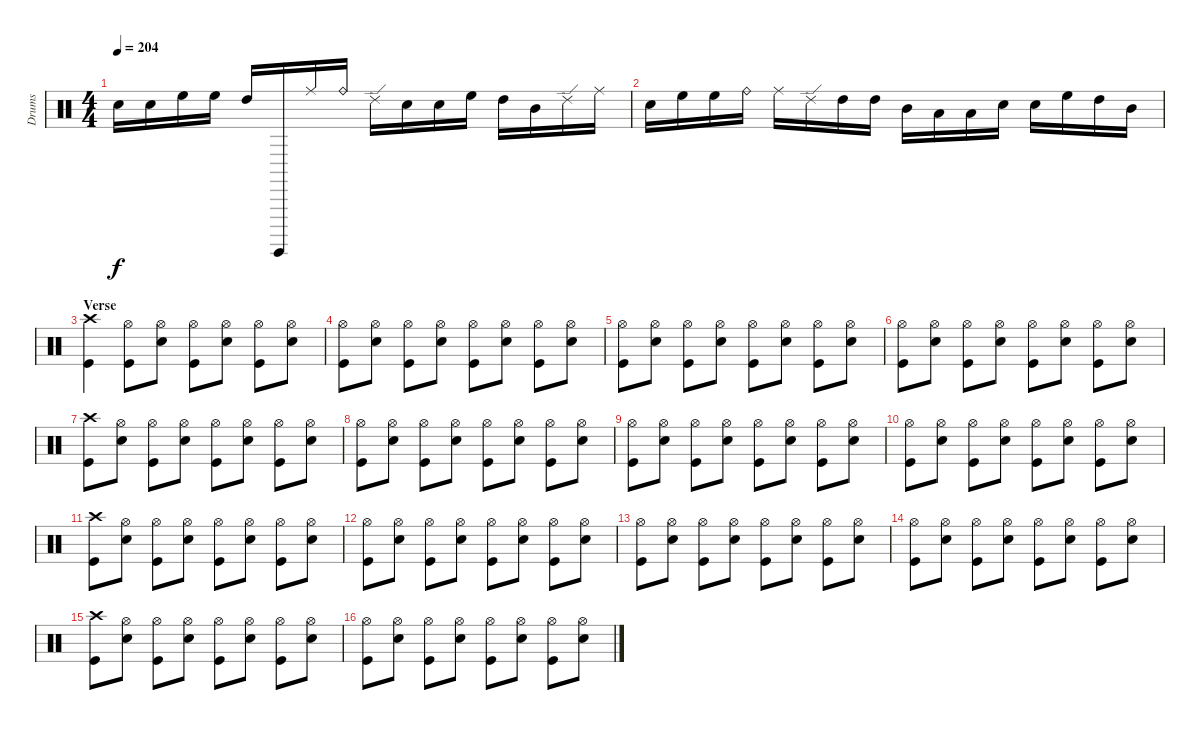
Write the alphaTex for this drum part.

\track ("Drums" "Drums") {instrument percussion}
\staff {score}
\articulation defaults
\ts (4 4)
\tempo 204
\clef neutral
\ks c "Electric Snare (hit)".16{dy f} "Electric Snare (hit)".16 "High Floor Tom (hit)".16 "High Floor Tom (hit)".16 "High Tom (hit)".16 "Surdo (hit)".16 "Ride (middle)".16 "Ride (bell)".16 "Ride (edge) 2".16 "Electric Snare (hit)".16 "Electric Snare (hit)".16 "High Floor Tom (hit)".16 "High Tom (hit)".16 "Mid Tom (hit)".16 "Ride (edge) 2".16 "Ride (middle)".16
|
"Electric Snare (hit)".16 "High Floor Tom (hit)".16 "High Floor Tom (hit)".16 "Ride (bell)".16 "Ride (middle)".16 "Ride (edge) 2".16 "High Tom (hit)".16 "High Tom (hit)".16 "Mid Tom (hit)".16 "Low Tom (hit)".16 "Low Tom (hit)".16 "Electric Snare (hit)".16 "Electric Snare (hit)".16 "High Floor Tom (hit)".16 "High Tom (hit)".16 "Mid Tom (hit)".16 |
\section ("" "Verse")
("Crash high (hit)" "Kick (hit)").4 ("Hi-Hat (open)" "Kick (hit)").8 ("Hi-Hat (open)" "Electric Snare (hit)").8 ("Hi-Hat (open)" "Kick (hit)").8 ("Hi-Hat (open)" "Electric Snare (hit)").8 ("Hi-Hat (open)" "Kick (hit)").8 ("Hi-Hat (open)" "Electric Snare (hit)").8 |
("Hi-Hat (open)" "Kick (hit)").8 ("Hi-Hat (open)" "Electric Snare (hit)").8 ("Hi-Hat (open)" "Kick (hit)").8 ("Hi-Hat (open)" "Electric Snare (hit)").8 ("Hi-Hat (open)" "Kick (hit)").8 ("Hi-Hat (open)" "Electric Snare (hit)").8 ("Hi-Hat (open)" "Kick (hit)").8 ("Hi-Hat (open)" "Electric Snare (hit)").8 |
("Hi-Hat (open)" "Kick (hit)").8 ("Hi-Hat (open)" "Electric Snare (hit)").8 ("Hi-Hat (open)" "Kick (hit)").8 ("Hi-Hat (open)" "Electric Snare (hit)").8 ("Hi-Hat (open)" "Kick (hit)").8 ("Hi-Hat (open)" "Electric Snare (hit)").8 ("Hi-Hat (open)" "Kick (hit)").8 ("Hi-Hat (open)" "Electric Snare (hit)").8 |
("Hi-Hat (open)" "Kick (hit)").8 ("Hi-Hat (open)" "Electric Snare (hit)").8 ("Hi-Hat (open)" "Kick (hit)").8 ("Hi-Hat (open)" "Electric Snare (hit)").8 ("Hi-Hat (open)" "Kick (hit)").8 ("Hi-Hat (open)" "Electric Snare (hit)").8 ("Hi-Hat (open)" "Kick (hit)").8 ("Hi-Hat (open)" "Electric Snare (hit)").8 |
("Crash high (hit)" "Kick (hit)").8 ("Hi-Hat (open)" "Electric Snare (hit)").8 ("Hi-Hat (open)" "Kick (hit)").8 ("Hi-Hat (open)" "Electric Snare (hit)").8 ("Hi-Hat (open)" "Kick (hit)").8 ("Hi-Hat (open)" "Electric Snare (hit)").8 ("Hi-Hat (open)" "Kick (hit)").8 ("Hi-Hat (open)" "Electric Snare (hit)").8 |
("Hi-Hat (open)" "Kick (hit)").8 ("Hi-Hat (open)" "Electric Snare (hit)").8 ("Hi-Hat (open)" "Kick (hit)").8 ("Hi-Hat (open)" "Electric Snare (hit)").8 ("Hi-Hat (open)" "Kick (hit)").8 ("Hi-Hat (open)" "Electric Snare (hit)").8 ("Hi-Hat (open)" "Kick (hit)").8 ("Hi-Hat (open)" "Electric Snare (hit)").8 |
("Hi-Hat (open)" "Kick (hit)").8 ("Hi-Hat (open)" "Electric Snare (hit)").8 ("Hi-Hat (open)" "Kick (hit)").8 ("Hi-Hat (open)" "Electric Snare (hit)").8 ("Hi-Hat (open)" "Kick (hit)").8 ("Hi-Hat (open)" "Electric Snare (hit)").8 ("Hi-Hat (open)" "Kick (hit)").8 ("Hi-Hat (open)" "Electric Snare (hit)").8 |
("Hi-Hat (open)" "Kick (hit)").8 ("Hi-Hat (open)" "Electric Snare (hit)").8 ("Hi-Hat (open)" "Kick (hit)").8 ("Hi-Hat (open)" "Electric Snare (hit)").8 ("Hi-Hat (open)" "Kick (hit)").8 ("Hi-Hat (open)" "Electric Snare (hit)").8 ("Hi-Hat (open)" "Kick (hit)").8 ("Hi-Hat (open)" "Electric Snare (hit)").8 |
("Crash high (hit)" "Kick (hit)").8 ("Hi-Hat (open)" "Electric Snare (hit)").8 ("Hi-Hat (open)" "Kick (hit)").8 ("Hi-Hat (open)" "Electric Snare (hit)").8 ("Hi-Hat (open)" "Kick (hit)").8 ("Hi-Hat (open)" "Electric Snare (hit)").8 ("Hi-Hat (open)" "Kick (hit)").8 ("Hi-Hat (open)" "Electric Snare (hit)").8 |
("Hi-Hat (open)" "Kick (hit)").8 ("Hi-Hat (open)" "Electric Snare (hit)").8 ("Hi-Hat (open)" "Kick (hit)").8 ("Hi-Hat (open)" "Electric Snare (hit)").8 ("Hi-Hat (open)" "Kick (hit)").8 ("Hi-Hat (open)" "Electric Snare (hit)").8 ("Hi-Hat (open)" "Kick (hit)").8 ("Hi-Hat (open)" "Electric Snare (hit)").8 |
("Hi-Hat (open)" "Kick (hit)").8 ("Hi-Hat (open)" "Electric Snare (hit)").8 ("Hi-Hat (open)" "Kick (hit)").8 ("Hi-Hat (open)" "Electric Snare (hit)").8 ("Hi-Hat (open)" "Kick (hit)").8 ("Hi-Hat (open)" "Electric Snare (hit)").8 ("Hi-Hat (open)" "Kick (hit)").8 ("Hi-Hat (open)" "Electric Snare (hit)").8 |
("Hi-Hat (open)" "Kick (hit)").8 ("Hi-Hat (open)" "Electric Snare (hit)").8 ("Hi-Hat (open)" "Kick (hit)").8 ("Hi-Hat (open)" "Electric Snare (hit)").8 ("Hi-Hat (open)" "Kick (hit)").8 ("Hi-Hat (open)" "Electric Snare (hit)").8 ("Hi-Hat (open)" "Kick (hit)").8 ("Hi-Hat (open)" "Electric Snare (hit)").8 |
("Crash high (hit)" "Kick (hit)").8 ("Hi-Hat (open)" "Electric Snare (hit)").8 ("Hi-Hat (open)" "Kick (hit)").8 ("Hi-Hat (open)" "Electric Snare (hit)").8 ("Hi-Hat (open)" "Kick (hit)").8 ("Hi-Hat (open)" "Electric Snare (hit)").8 ("Hi-Hat (open)" "Kick (hit)").8 ("Hi-Hat (open)" "Electric Snare (hit)").8 |
("Hi-Hat (open)" "Kick (hit)").8 ("Hi-Hat (open)" "Electric Snare (hit)").8 ("Hi-Hat (open)" "Kick (hit)").8 ("Hi-Hat (open)" "Electric Snare (hit)").8 ("Hi-Hat (open)" "Kick (hit)").8 ("Hi-Hat (open)" "Electric Snare (hit)").8 ("Hi-Hat (open)" "Kick (hit)").8 ("Hi-Hat (open)" "Electric Snare (hit)").8
